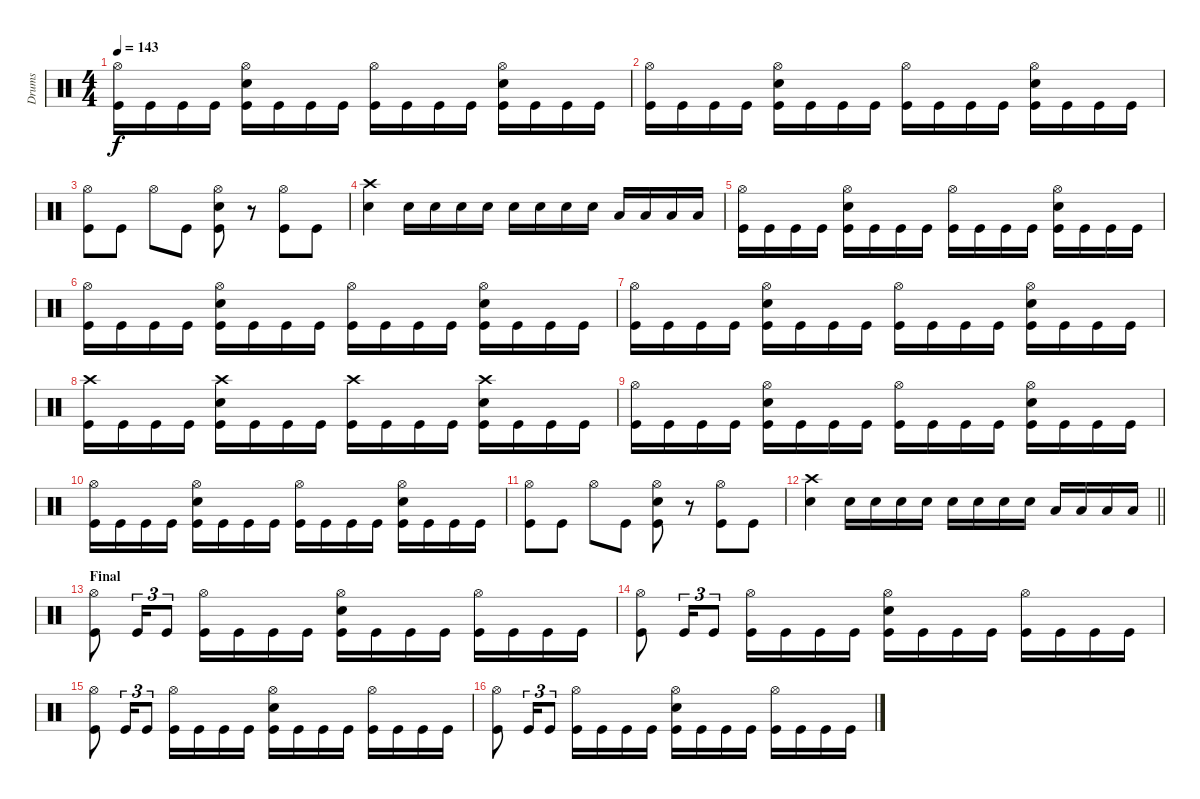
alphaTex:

\track ("Drums" "Drums") {instrument percussion}
\staff {score}
\articulation defaults
\ts (4 4)
\tempo 143
\clef neutral
\ks c
("Hi-Hat (open)" "Kick (hit)").16{dy f} "Kick (hit)".16 "Kick (hit)".16 "Kick (hit)".16 ("Hi-Hat (open)" "Snare (hit) 2" "Kick (hit)").16 "Kick (hit)".16 "Kick (hit)".16 "Kick (hit)".16 ("Hi-Hat (open)" "Kick (hit)").16 "Kick (hit)".16 "Kick (hit)".16 "Kick (hit)".16 ("Hi-Hat (open)" "Snare (hit) 2" "Kick (hit)").16 "Kick (hit)".16 "Kick (hit)".16 "Kick (hit)".16 |
("Hi-Hat (open)" "Kick (hit)").16 "Kick (hit)".16 "Kick (hit)".16 "Kick (hit)".16 ("Hi-Hat (open)" "Snare (hit) 2" "Kick (hit)").16 "Kick (hit)".16 "Kick (hit)".16 "Kick (hit)".16 ("Hi-Hat (open)" "Kick (hit)").16 "Kick (hit)".16 "Kick (hit)".16 "Kick (hit)".16 ("Hi-Hat (open)" "Snare (hit) 2" "Kick (hit)").16 "Kick (hit)".16 "Kick (hit)".16 "Kick (hit)".16 |
("Hi-Hat (open)" "Kick (hit)").8 "Kick (hit)".8 "Hi-Hat (open)".8 "Kick (hit)".8 ("Hi-Hat (open)" "Snare (hit) 2" "Kick (hit)").8 r.8 ("Hi-Hat (open)" "Kick (hit)").8 "Kick (hit)".8 |
("Crash high (hit)" "Snare (hit) 2").4 "Snare (hit) 2".16 "Snare (hit) 2".16 "Snare (hit) 2".16 "Snare (hit) 2".16 "Snare (hit) 2".16 "Snare (hit) 2".16 "Snare (hit) 2".16 "Snare (hit) 2".16 "Low Tom (hit)".16 "Low Tom (hit)".16 "Low Tom (hit)".16 "Low Tom (hit)".16 |
("Hi-Hat (open)" "Kick (hit)").16 "Kick (hit)".16 "Kick (hit)".16 "Kick (hit)".16 ("Hi-Hat (open)" "Snare (hit) 2" "Kick (hit)").16 "Kick (hit)".16 "Kick (hit)".16 "Kick (hit)".16 ("Hi-Hat (open)" "Kick (hit)").16 "Kick (hit)".16 "Kick (hit)".16 "Kick (hit)".16 ("Hi-Hat (open)" "Snare (hit) 2" "Kick (hit)").16 "Kick (hit)".16 "Kick (hit)".16 "Kick (hit)".16 |
("Hi-Hat (open)" "Kick (hit)").16 "Kick (hit)".16 "Kick (hit)".16 "Kick (hit)".16 ("Hi-Hat (open)" "Snare (hit) 2" "Kick (hit)").16 "Kick (hit)".16 "Kick (hit)".16 "Kick (hit)".16 ("Hi-Hat (open)" "Kick (hit)").16 "Kick (hit)".16 "Kick (hit)".16 "Kick (hit)".16 ("Hi-Hat (open)" "Snare (hit) 2" "Kick (hit)").16 "Kick (hit)".16 "Kick (hit)".16 "Kick (hit)".16 |
("Hi-Hat (open)" "Kick (hit)").16 "Kick (hit)".16 "Kick (hit)".16 "Kick (hit)".16 ("Hi-Hat (open)" "Snare (hit) 2" "Kick (hit)").16 "Kick (hit)".16 "Kick (hit)".16 "Kick (hit)".16 ("Hi-Hat (open)" "Kick (hit)").16 "Kick (hit)".16 "Kick (hit)".16 "Kick (hit)".16 ("Hi-Hat (open)" "Snare (hit) 2" "Kick (hit)").16 "Kick (hit)".16 "Kick (hit)".16 "Kick (hit)".16 |
("Crash high (hit)" "Kick (hit)").16 "Kick (hit)".16 "Kick (hit)".16 "Kick (hit)".16 ("Crash high (hit)" "Snare (hit) 2" "Kick (hit)").16 "Kick (hit)".16 "Kick (hit)".16 "Kick (hit)".16 ("Crash high (hit)" "Kick (hit)").16 "Kick (hit)".16 "Kick (hit)".16 "Kick (hit)".16 ("Crash high (hit)" "Snare (hit) 2" "Kick (hit)").16 "Kick (hit)".16 "Kick (hit)".16 "Kick (hit)".16 |
("Hi-Hat (open)" "Kick (hit)").16 "Kick (hit)".16 "Kick (hit)".16 "Kick (hit)".16 ("Hi-Hat (open)" "Snare (hit) 2" "Kick (hit)").16 "Kick (hit)".16 "Kick (hit)".16 "Kick (hit)".16 ("Hi-Hat (open)" "Kick (hit)").16 "Kick (hit)".16 "Kick (hit)".16 "Kick (hit)".16 ("Hi-Hat (open)" "Snare (hit) 2" "Kick (hit)").16 "Kick (hit)".16 "Kick (hit)".16 "Kick (hit)".16 |
("Hi-Hat (open)" "Kick (hit)").16 "Kick (hit)".16 "Kick (hit)".16 "Kick (hit)".16 ("Hi-Hat (open)" "Snare (hit) 2" "Kick (hit)").16 "Kick (hit)".16 "Kick (hit)".16 "Kick (hit)".16 ("Hi-Hat (open)" "Kick (hit)").16 "Kick (hit)".16 "Kick (hit)".16 "Kick (hit)".16 ("Hi-Hat (open)" "Snare (hit) 2" "Kick (hit)").16 "Kick (hit)".16 "Kick (hit)".16 "Kick (hit)".16 |
("Hi-Hat (open)" "Kick (hit)").8 "Kick (hit)".8 "Hi-Hat (open)".8 "Kick (hit)".8 ("Hi-Hat (open)" "Snare (hit) 2" "Kick (hit)").8 r.8 ("Hi-Hat (open)" "Kick (hit)").8 "Kick (hit)".8 |
\barLineRight lightlight
("Crash high (hit)" "Snare (hit) 2").4 "Snare (hit) 2".16 "Snare (hit) 2".16 "Snare (hit) 2".16 "Snare (hit) 2".16 "Snare (hit) 2".16 "Snare (hit) 2".16 "Snare (hit) 2".16 "Snare (hit) 2".16 "Low Tom (hit)".16 "Low Tom (hit)".16 "Low Tom (hit)".16 "Low Tom (hit)".16 |
\section ("" "Final")
("Hi-Hat (open)" "Kick (hit)").8 "Kick (hit)".16{tu (3 2)} "Kick (hit)".8{tu (3 2)} ("Hi-Hat (open)" "Kick (hit)").16 "Kick (hit)".16 "Kick (hit)".16 "Kick (hit)".16 ("Hi-Hat (open)" "Snare (hit) 2" "Kick (hit)").16 "Kick (hit)".16 "Kick (hit)".16 "Kick (hit)".16 ("Hi-Hat (open)" "Kick (hit)").16 "Kick (hit)".16 "Kick (hit)".16 "Kick (hit)".16 |
("Hi-Hat (open)" "Kick (hit)").8 "Kick (hit)".16{tu (3 2)} "Kick (hit)".8{tu (3 2)} ("Hi-Hat (open)" "Kick (hit)").16 "Kick (hit)".16 "Kick (hit)".16 "Kick (hit)".16 ("Hi-Hat (open)" "Snare (hit) 2" "Kick (hit)").16 "Kick (hit)".16 "Kick (hit)".16 "Kick (hit)".16 ("Hi-Hat (open)" "Kick (hit)").16 "Kick (hit)".16 "Kick (hit)".16 "Kick (hit)".16 |
("Hi-Hat (open)" "Kick (hit)").8 "Kick (hit)".16{tu (3 2)} "Kick (hit)".8{tu (3 2)} ("Hi-Hat (open)" "Kick (hit)").16 "Kick (hit)".16 "Kick (hit)".16 "Kick (hit)".16 ("Hi-Hat (open)" "Snare (hit) 2" "Kick (hit)").16 "Kick (hit)".16 "Kick (hit)".16 "Kick (hit)".16 ("Hi-Hat (open)" "Kick (hit)").16 "Kick (hit)".16 "Kick (hit)".16 "Kick (hit)".16 |
("Hi-Hat (open)" "Kick (hit)").8 "Kick (hit)".16{tu (3 2)} "Kick (hit)".8{tu (3 2)} ("Hi-Hat (open)" "Kick (hit)").16 "Kick (hit)".16 "Kick (hit)".16 "Kick (hit)".16 ("Hi-Hat (open)" "Snare (hit) 2" "Kick (hit)").16 "Kick (hit)".16 "Kick (hit)".16 "Kick (hit)".16 ("Hi-Hat (open)" "Kick (hit)").16 "Kick (hit)".16 "Kick (hit)".16 "Kick (hit)".16
